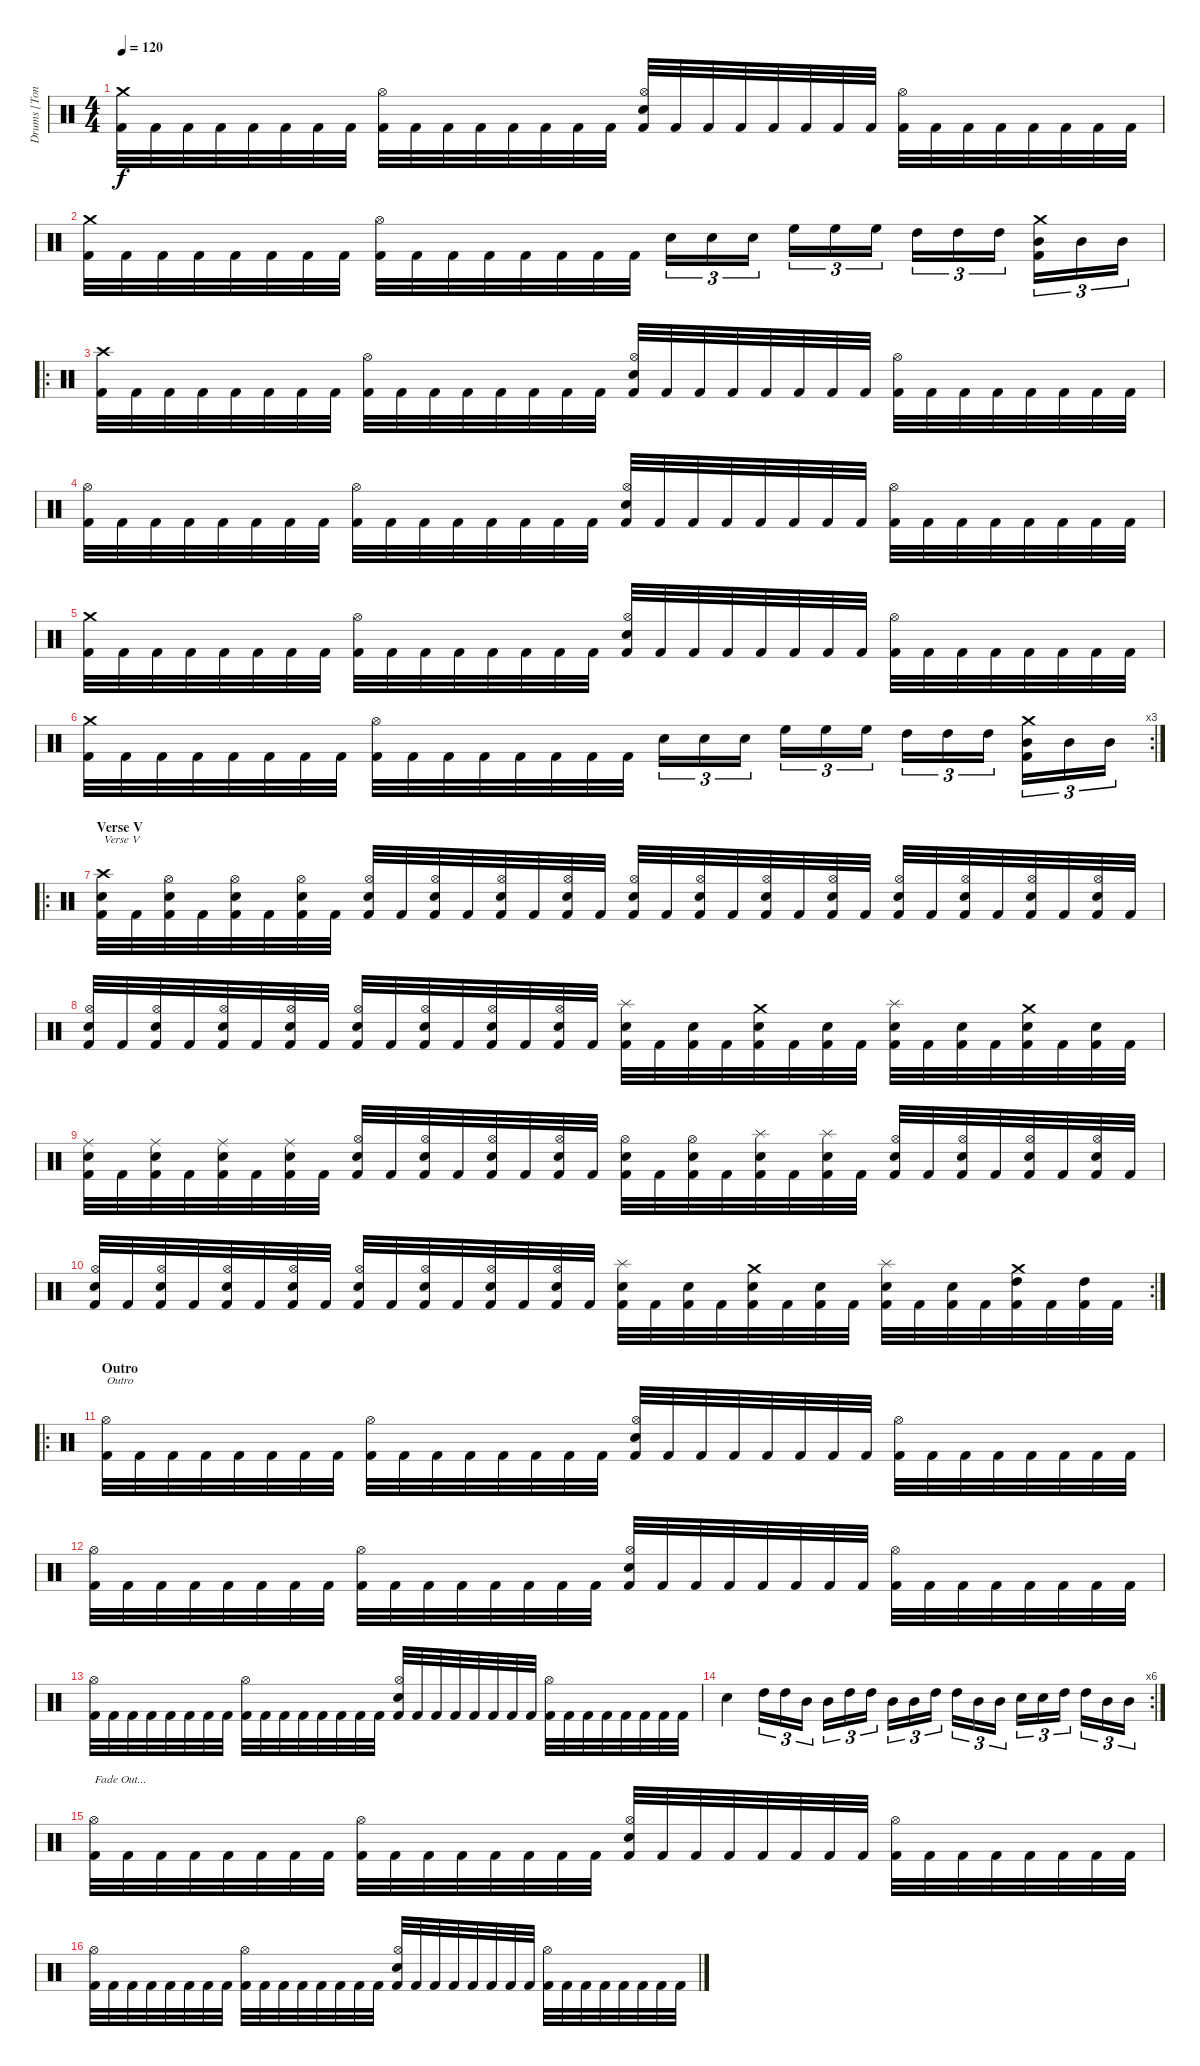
\track ("Drums [Tony Laureano]" "Drums [Ton") {instrument percussion}
\staff {score}
\articulation defaults
\ts (4 4)
\tempo 120
\clef neutral
\ks c
("Crash medium (hit)" "Kick (hit) 2").32{dy f} "Kick (hit) 2".32 "Kick (hit) 2".32 "Kick (hit) 2".32 "Kick (hit) 2".32 "Kick (hit) 2".32 "Kick (hit) 2".32 "Kick (hit) 2".32 ("Hi-Hat (open)" "Kick (hit) 2").32 "Kick (hit) 2".32 "Kick (hit) 2".32 "Kick (hit) 2".32 "Kick (hit) 2".32 "Kick (hit) 2".32 "Kick (hit) 2".32 "Kick (hit) 2".32 ("Hi-Hat (open)" "Electric Snare (hit)" "Kick (hit) 2").32 "Kick (hit) 2".32 "Kick (hit) 2".32 "Kick (hit) 2".32 "Kick (hit) 2".32 "Kick (hit) 2".32 "Kick (hit) 2".32 "Kick (hit) 2".32 ("Hi-Hat (open)" "Kick (hit) 2").32 "Kick (hit) 2".32 "Kick (hit) 2".32 "Kick (hit) 2".32 "Kick (hit) 2".32 "Kick (hit) 2".32 "Kick (hit) 2".32 "Kick (hit) 2".32 |
("Crash medium (hit)" "Kick (hit) 2").32 "Kick (hit) 2".32 "Kick (hit) 2".32 "Kick (hit) 2".32 "Kick (hit) 2".32 "Kick (hit) 2".32 "Kick (hit) 2".32 "Kick (hit) 2".32 ("Hi-Hat (open)" "Kick (hit) 2").32 "Kick (hit) 2".32 "Kick (hit) 2".32 "Kick (hit) 2".32 "Kick (hit) 2".32 "Kick (hit) 2".32 "Kick (hit) 2".32 "Kick (hit) 2".32 "Electric Snare (hit)".16{tu (3 2)} "Electric Snare (hit)".16{tu (3 2)} "Electric Snare (hit)".16{tu (3 2)} "High Floor Tom (hit)".16{tu (3 2)} "High Floor Tom (hit)".16{tu (3 2)} "High Floor Tom (hit)".16{tu (3 2)} "High Tom (hit)".16{tu (3 2)} "High Tom (hit)".16{tu (3 2)} "High Tom (hit)".16{tu (3 2)} ("Crash medium (hit)" "Mid Tom (hit)" "Kick (hit) 2").16{tu (3 2)} "Mid Tom (hit)".16{tu (3 2)} "Mid Tom (hit)".16{tu (3 2)} |
\ro
("Crash high (hit)" "Kick (hit) 2").32 "Kick (hit) 2".32 "Kick (hit) 2".32 "Kick (hit) 2".32 "Kick (hit) 2".32 "Kick (hit) 2".32 "Kick (hit) 2".32 "Kick (hit) 2".32 ("Hi-Hat (open)" "Kick (hit) 2").32 "Kick (hit) 2".32 "Kick (hit) 2".32 "Kick (hit) 2".32 "Kick (hit) 2".32 "Kick (hit) 2".32 "Kick (hit) 2".32 "Kick (hit) 2".32 ("Hi-Hat (open)" "Electric Snare (hit)" "Kick (hit) 2").32 "Kick (hit) 2".32 "Kick (hit) 2".32 "Kick (hit) 2".32 "Kick (hit) 2".32 "Kick (hit) 2".32 "Kick (hit) 2".32 "Kick (hit) 2".32 ("Hi-Hat (open)" "Kick (hit) 2").32 "Kick (hit) 2".32 "Kick (hit) 2".32 "Kick (hit) 2".32 "Kick (hit) 2".32 "Kick (hit) 2".32 "Kick (hit) 2".32 "Kick (hit) 2".32 |
("Hi-Hat (open)" "Kick (hit) 2").32 "Kick (hit) 2".32 "Kick (hit) 2".32 "Kick (hit) 2".32 "Kick (hit) 2".32 "Kick (hit) 2".32 "Kick (hit) 2".32 "Kick (hit) 2".32 ("Hi-Hat (open)" "Kick (hit) 2").32 "Kick (hit) 2".32 "Kick (hit) 2".32 "Kick (hit) 2".32 "Kick (hit) 2".32 "Kick (hit) 2".32 "Kick (hit) 2".32 "Kick (hit) 2".32 ("Hi-Hat (open)" "Electric Snare (hit)" "Kick (hit) 2").32 "Kick (hit) 2".32 "Kick (hit) 2".32 "Kick (hit) 2".32 "Kick (hit) 2".32 "Kick (hit) 2".32 "Kick (hit) 2".32 "Kick (hit) 2".32 ("Hi-Hat (open)" "Kick (hit) 2").32 "Kick (hit) 2".32 "Kick (hit) 2".32 "Kick (hit) 2".32 "Kick (hit) 2".32 "Kick (hit) 2".32 "Kick (hit) 2".32 "Kick (hit) 2".32 |
("Crash medium (hit)" "Kick (hit) 2").32 "Kick (hit) 2".32 "Kick (hit) 2".32 "Kick (hit) 2".32 "Kick (hit) 2".32 "Kick (hit) 2".32 "Kick (hit) 2".32 "Kick (hit) 2".32 ("Hi-Hat (open)" "Kick (hit) 2").32 "Kick (hit) 2".32 "Kick (hit) 2".32 "Kick (hit) 2".32 "Kick (hit) 2".32 "Kick (hit) 2".32 "Kick (hit) 2".32 "Kick (hit) 2".32 ("Hi-Hat (open)" "Electric Snare (hit)" "Kick (hit) 2").32 "Kick (hit) 2".32 "Kick (hit) 2".32 "Kick (hit) 2".32 "Kick (hit) 2".32 "Kick (hit) 2".32 "Kick (hit) 2".32 "Kick (hit) 2".32 ("Hi-Hat (open)" "Kick (hit) 2").32 "Kick (hit) 2".32 "Kick (hit) 2".32 "Kick (hit) 2".32 "Kick (hit) 2".32 "Kick (hit) 2".32 "Kick (hit) 2".32 "Kick (hit) 2".32 |
\rc 3
("Crash medium (hit)" "Kick (hit) 2").32 "Kick (hit) 2".32 "Kick (hit) 2".32 "Kick (hit) 2".32 "Kick (hit) 2".32 "Kick (hit) 2".32 "Kick (hit) 2".32 "Kick (hit) 2".32 ("Hi-Hat (open)" "Kick (hit) 2").32 "Kick (hit) 2".32 "Kick (hit) 2".32 "Kick (hit) 2".32 "Kick (hit) 2".32 "Kick (hit) 2".32 "Kick (hit) 2".32 "Kick (hit) 2".32 "Electric Snare (hit)".16{tu (3 2)} "Electric Snare (hit)".16{tu (3 2)} "Electric Snare (hit)".16{tu (3 2)} "High Floor Tom (hit)".16{tu (3 2)} "High Floor Tom (hit)".16{tu (3 2)} "High Floor Tom (hit)".16{tu (3 2)} "High Tom (hit)".16{tu (3 2)} "High Tom (hit)".16{tu (3 2)} "High Tom (hit)".16{tu (3 2)} ("Crash medium (hit)" "Mid Tom (hit)" "Kick (hit) 2").16{tu (3 2)} "Mid Tom (hit)".16{tu (3 2)} "Mid Tom (hit)".16{tu (3 2)} |
\ro
\section ("" "Verse V")
("Crash high (hit)" "Electric Snare (hit)" "Kick (hit) 2").32{txt "Verse V"} "Kick (hit) 2".32 ("Hi-Hat (open)" "Electric Snare (hit)" "Kick (hit) 2").32 "Kick (hit) 2".32 ("Hi-Hat (open)" "Electric Snare (hit)" "Kick (hit) 2").32 "Kick (hit) 2".32 ("Hi-Hat (open)" "Electric Snare (hit)" "Kick (hit) 2").32 "Kick (hit) 2".32 ("Hi-Hat (open)" "Electric Snare (hit)" "Kick (hit) 2").32 "Kick (hit) 2".32 ("Hi-Hat (open)" "Electric Snare (hit)" "Kick (hit) 2").32 "Kick (hit) 2".32 ("Hi-Hat (open)" "Electric Snare (hit)" "Kick (hit) 2").32 "Kick (hit) 2".32 ("Hi-Hat (open)" "Electric Snare (hit)" "Kick (hit) 2").32 "Kick (hit) 2".32 ("Hi-Hat (open)" "Electric Snare (hit)" "Kick (hit) 2").32 "Kick (hit) 2".32 ("Hi-Hat (open)" "Electric Snare (hit)" "Kick (hit) 2").32 "Kick (hit) 2".32 ("Hi-Hat (open)" "Electric Snare (hit)" "Kick (hit) 2").32 "Kick (hit) 2".32 ("Hi-Hat (open)" "Electric Snare (hit)" "Kick (hit) 2").32 "Kick (hit) 2".32 ("Hi-Hat (open)" "Electric Snare (hit)" "Kick (hit) 2").32 "Kick (hit) 2".32 ("Hi-Hat (open)" "Electric Snare (hit)" "Kick (hit) 2").32 "Kick (hit) 2".32 ("Hi-Hat (open)" "Electric Snare (hit)" "Kick (hit) 2").32 "Kick (hit) 2".32 ("Hi-Hat (open)" "Electric Snare (hit)" "Kick (hit) 2").32 "Kick (hit) 2".32 |
("Hi-Hat (open)" "Electric Snare (hit)" "Kick (hit) 2").32 "Kick (hit) 2".32 ("Hi-Hat (open)" "Electric Snare (hit)" "Kick (hit) 2").32 "Kick (hit) 2".32 ("Hi-Hat (open)" "Electric Snare (hit)" "Kick (hit) 2").32 "Kick (hit) 2".32 ("Hi-Hat (open)" "Electric Snare (hit)" "Kick (hit) 2").32 "Kick (hit) 2".32 ("Hi-Hat (open)" "Electric Snare (hit)" "Kick (hit) 2").32 "Kick (hit) 2".32 ("Hi-Hat (open)" "Electric Snare (hit)" "Kick (hit) 2").32 "Kick (hit) 2".32 ("Hi-Hat (open)" "Electric Snare (hit)" "Kick (hit) 2").32 "Kick (hit) 2".32 ("Hi-Hat (open)" "Electric Snare (hit)" "Kick (hit) 2").32 "Kick (hit) 2".32 ("Splash (hit)" "Electric Snare (hit)" "Kick (hit) 2").32 "Kick (hit) 2".32 ("Electric Snare (hit)" "Kick (hit) 2").32 "Kick (hit) 2".32 ("Crash medium (hit)" "Electric Snare (hit)" "Kick (hit) 2").32 "Kick (hit) 2".32 ("Electric Snare (hit)" "Kick (hit) 2").32 "Kick (hit) 2".32 ("Splash (hit)" "Electric Snare (hit)" "Kick (hit) 2").32 "Kick (hit) 2".32 ("Electric Snare (hit)" "Kick (hit) 2").32 "Kick (hit) 2".32 ("Crash medium (hit)" "Electric Snare (hit)" "Kick (hit) 2").32 "Kick (hit) 2".32 ("Electric Snare (hit)" "Kick (hit) 2").32 "Kick (hit) 2".32 |
("Ride (middle)" "Electric Snare (hit)" "Kick (hit) 2").32 "Kick (hit) 2".32 ("Ride (middle)" "Electric Snare (hit)" "Kick (hit) 2").32 "Kick (hit) 2".32 ("Ride (middle)" "Electric Snare (hit)" "Kick (hit) 2").32 "Kick (hit) 2".32 ("Ride (middle)" "Electric Snare (hit)" "Kick (hit) 2").32 "Kick (hit) 2".32 ("Hi-Hat (open)" "Electric Snare (hit)" "Kick (hit) 2").32 "Kick (hit) 2".32 ("Hi-Hat (open)" "Electric Snare (hit)" "Kick (hit) 2").32 "Kick (hit) 2".32 ("Hi-Hat (open)" "Electric Snare (hit)" "Kick (hit) 2").32 "Kick (hit) 2".32 ("Hi-Hat (open)" "Electric Snare (hit)" "Kick (hit) 2").32 "Kick (hit) 2".32 ("Hi-Hat (open)" "Electric Snare (hit)" "Kick (hit) 2").32 "Kick (hit) 2".32 ("Hi-Hat (open)" "Electric Snare (hit)" "Kick (hit) 2").32 "Kick (hit) 2".32 ("Splash (hit)" "Electric Snare (hit)" "Kick (hit) 2").32 "Kick (hit) 2".32 ("Splash (hit)" "Electric Snare (hit)" "Kick (hit) 2").32 "Kick (hit) 2".32 ("Hi-Hat (open)" "Electric Snare (hit)" "Kick (hit) 2").32 "Kick (hit) 2".32 ("Hi-Hat (open)" "Electric Snare (hit)" "Kick (hit) 2").32 "Kick (hit) 2".32 ("Hi-Hat (open)" "Electric Snare (hit)" "Kick (hit) 2").32 "Kick (hit) 2".32 ("Hi-Hat (open)" "Electric Snare (hit)" "Kick (hit) 2").32 "Kick (hit) 2".32 |
\rc 2
("Hi-Hat (open)" "Electric Snare (hit)" "Kick (hit) 2").32 "Kick (hit) 2".32 ("Hi-Hat (open)" "Electric Snare (hit)" "Kick (hit) 2").32 "Kick (hit) 2".32 ("Hi-Hat (open)" "Electric Snare (hit)" "Kick (hit) 2").32 "Kick (hit) 2".32 ("Hi-Hat (open)" "Electric Snare (hit)" "Kick (hit) 2").32 "Kick (hit) 2".32 ("Hi-Hat (open)" "Electric Snare (hit)" "Kick (hit) 2").32 "Kick (hit) 2".32 ("Hi-Hat (open)" "Electric Snare (hit)" "Kick (hit) 2").32 "Kick (hit) 2".32 ("Hi-Hat (open)" "Electric Snare (hit)" "Kick (hit) 2").32 "Kick (hit) 2".32 ("Hi-Hat (open)" "Electric Snare (hit)" "Kick (hit) 2").32 "Kick (hit) 2".32 ("Splash (hit)" "Electric Snare (hit)" "Kick (hit) 2").32 "Kick (hit) 2".32 ("Electric Snare (hit)" "Kick (hit) 2").32 "Kick (hit) 2".32 ("Crash medium (hit)" "Electric Snare (hit)" "Kick (hit) 2").32 "Kick (hit) 2".32 ("Electric Snare (hit)" "Kick (hit) 2").32 "Kick (hit) 2".32 ("Splash (hit)" "Electric Snare (hit)" "Kick (hit) 2").32 "Kick (hit) 2".32 ("Electric Snare (hit)" "Kick (hit) 2").32 "Kick (hit) 2".32 ("Crash medium (hit)" "High Tom (hit)" "Kick (hit) 2").32 "Kick (hit) 2".32 ("High Tom (hit)" "Kick (hit) 2").32 "Kick (hit) 2".32 |
\ro
\section ("" "Outro")
("Hi-Hat (open)" "Kick (hit) 2").32{txt "Outro"} "Kick (hit) 2".32 "Kick (hit) 2".32 "Kick (hit) 2".32 "Kick (hit) 2".32 "Kick (hit) 2".32 "Kick (hit) 2".32 "Kick (hit) 2".32 ("Hi-Hat (open)" "Kick (hit) 2").32 "Kick (hit) 2".32 "Kick (hit) 2".32 "Kick (hit) 2".32 "Kick (hit) 2".32 "Kick (hit) 2".32 "Kick (hit) 2".32 "Kick (hit) 2".32 ("Hi-Hat (open)" "Electric Snare (hit)" "Kick (hit) 2").32 "Kick (hit) 2".32 "Kick (hit) 2".32 "Kick (hit) 2".32 "Kick (hit) 2".32 "Kick (hit) 2".32 "Kick (hit) 2".32 "Kick (hit) 2".32 ("Hi-Hat (open)" "Kick (hit) 2").32 "Kick (hit) 2".32 "Kick (hit) 2".32 "Kick (hit) 2".32 "Kick (hit) 2".32 "Kick (hit) 2".32 "Kick (hit) 2".32 "Kick (hit) 2".32 |
("Hi-Hat (open)" "Kick (hit) 2").32 "Kick (hit) 2".32 "Kick (hit) 2".32 "Kick (hit) 2".32 "Kick (hit) 2".32 "Kick (hit) 2".32 "Kick (hit) 2".32 "Kick (hit) 2".32 ("Hi-Hat (open)" "Kick (hit) 2").32 "Kick (hit) 2".32 "Kick (hit) 2".32 "Kick (hit) 2".32 "Kick (hit) 2".32 "Kick (hit) 2".32 "Kick (hit) 2".32 "Kick (hit) 2".32 ("Hi-Hat (open)" "Electric Snare (hit)" "Kick (hit) 2").32 "Kick (hit) 2".32 "Kick (hit) 2".32 "Kick (hit) 2".32 "Kick (hit) 2".32 "Kick (hit) 2".32 "Kick (hit) 2".32 "Kick (hit) 2".32 ("Hi-Hat (open)" "Kick (hit) 2").32 "Kick (hit) 2".32 "Kick (hit) 2".32 "Kick (hit) 2".32 "Kick (hit) 2".32 "Kick (hit) 2".32 "Kick (hit) 2".32 "Kick (hit) 2".32 |
("Hi-Hat (open)" "Kick (hit) 2").32 "Kick (hit) 2".32 "Kick (hit) 2".32 "Kick (hit) 2".32 "Kick (hit) 2".32 "Kick (hit) 2".32 "Kick (hit) 2".32 "Kick (hit) 2".32 ("Hi-Hat (open)" "Kick (hit) 2").32 "Kick (hit) 2".32 "Kick (hit) 2".32 "Kick (hit) 2".32 "Kick (hit) 2".32 "Kick (hit) 2".32 "Kick (hit) 2".32 "Kick (hit) 2".32 ("Hi-Hat (open)" "Electric Snare (hit)" "Kick (hit) 2").32 "Kick (hit) 2".32 "Kick (hit) 2".32 "Kick (hit) 2".32 "Kick (hit) 2".32 "Kick (hit) 2".32 "Kick (hit) 2".32 "Kick (hit) 2".32 ("Hi-Hat (open)" "Kick (hit) 2").32 "Kick (hit) 2".32 "Kick (hit) 2".32 "Kick (hit) 2".32 "Kick (hit) 2".32 "Kick (hit) 2".32 "Kick (hit) 2".32 "Kick (hit) 2".32 |
\rc 6 "Electric Snare (hit)".4 "High Tom (hit)".16{tu (3 2)} "High Tom (hit)".16{tu (3 2)} "Mid Tom (hit)".16{tu (3 2)} "Mid Tom (hit)".16{tu (3 2)} "High Tom (hit)".16{tu (3 2)} "High Tom (hit)".16{tu (3 2)} "Mid Tom (hit)".16{tu (3 2)} "Mid Tom (hit)".16{tu (3 2)} "High Tom (hit)".16{tu (3 2)} "High Tom (hit)".16{tu (3 2)} "Mid Tom (hit)".16{tu (3 2)} "Mid Tom (hit)".16{tu (3 2)} "Electric Snare (hit)".16{tu (3 2)} "Electric Snare (hit)".16{tu (3 2)} "High Tom (hit)".16{tu (3 2)} "High Tom (hit)".16{tu (3 2)} "Mid Tom (hit)".16{tu (3 2)} "Mid Tom (hit)".16{tu (3 2)}
|
("Hi-Hat (open)" "Kick (hit) 2").32{txt "Fade Out..."} "Kick (hit) 2".32 "Kick (hit) 2".32 "Kick (hit) 2".32 "Kick (hit) 2".32 "Kick (hit) 2".32 "Kick (hit) 2".32 "Kick (hit) 2".32 ("Hi-Hat (open)" "Kick (hit) 2").32 "Kick (hit) 2".32 "Kick (hit) 2".32 "Kick (hit) 2".32 "Kick (hit) 2".32 "Kick (hit) 2".32 "Kick (hit) 2".32 "Kick (hit) 2".32 ("Hi-Hat (open)" "Electric Snare (hit)" "Kick (hit) 2").32 "Kick (hit) 2".32 "Kick (hit) 2".32 "Kick (hit) 2".32 "Kick (hit) 2".32 "Kick (hit) 2".32 "Kick (hit) 2".32 "Kick (hit) 2".32 ("Hi-Hat (open)" "Kick (hit) 2").32 "Kick (hit) 2".32 "Kick (hit) 2".32 "Kick (hit) 2".32 "Kick (hit) 2".32 "Kick (hit) 2".32 "Kick (hit) 2".32 "Kick (hit) 2".32 |
("Hi-Hat (open)" "Kick (hit) 2").32 "Kick (hit) 2".32 "Kick (hit) 2".32 "Kick (hit) 2".32 "Kick (hit) 2".32 "Kick (hit) 2".32 "Kick (hit) 2".32 "Kick (hit) 2".32 ("Hi-Hat (open)" "Kick (hit) 2").32 "Kick (hit) 2".32 "Kick (hit) 2".32 "Kick (hit) 2".32 "Kick (hit) 2".32 "Kick (hit) 2".32 "Kick (hit) 2".32 "Kick (hit) 2".32 ("Hi-Hat (open)" "Electric Snare (hit)" "Kick (hit) 2").32 "Kick (hit) 2".32 "Kick (hit) 2".32 "Kick (hit) 2".32 "Kick (hit) 2".32 "Kick (hit) 2".32 "Kick (hit) 2".32 "Kick (hit) 2".32 ("Hi-Hat (open)" "Kick (hit) 2").32 "Kick (hit) 2".32 "Kick (hit) 2".32 "Kick (hit) 2".32 "Kick (hit) 2".32 "Kick (hit) 2".32 "Kick (hit) 2".32 "Kick (hit) 2".32
